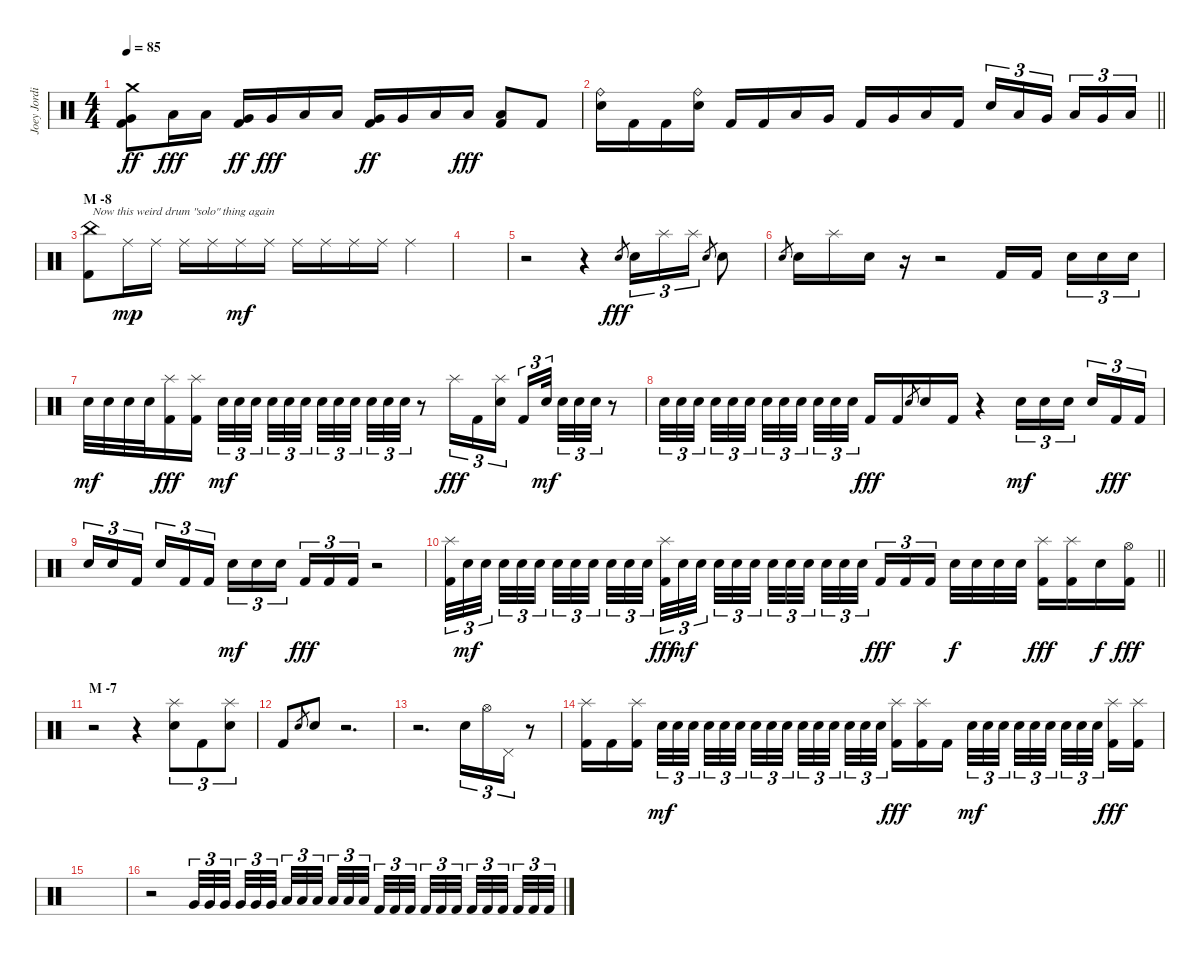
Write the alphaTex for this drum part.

\track ("Joey Jordison" "Joey Jordi") {instrument percussion}
\staff {score}
\articulation defaults
\ts (4 4)
\tempo 85
\clef neutral
\ks c
("Crash medium (hit)" "Very Low Tom (hit)" "Kick (hit) 2").8{dy ff} "Low Tom (hit)".16{dy fff} "Low Tom (hit)".16 ("Very Low Tom (hit)" "Kick (hit) 2").16{dy ff} "Very Low Tom (hit)".16{dy fff} "Low Tom (hit)".16 "Low Tom (hit)".16 ("Very Low Tom (hit)" "Kick (hit) 2").16{dy ff} "Very Low Tom (hit)".16 "Low Floor Tom (hit)".16 "Low Floor Tom (hit)".16{dy fff} ("Low Floor Tom (hit)" "Kick (hit) 2").8 "Kick (hit) 2".8 |
\barLineRight lightlight
("Ride (bell)" "Electric Snare (hit)").16 "Kick (hit) 2".16 "Kick (hit) 2".16 ("Ride (bell)" "Electric Snare (hit)").16 "Kick (hit) 2".16 "Kick (hit) 2".16 "Low Tom (hit)".16 "Very Low Tom (hit)".16 "Kick (hit) 2".16 "Very Low Tom (hit)".16 "Low Floor Tom (hit)".16 "Kick (hit) 2".16 "Electric Snare (hit)".16{tu (3 2)} "Low Tom (hit)".16{tu (3 2)} "Very Low Tom (hit)".16{tu (3 2) beam splitsecondary} "Low Tom (hit)".16{tu (3 2)} "Very Low Tom (hit)".16{tu (3 2)} "Low Floor Tom (hit)".16{tu (3 2)} |
\section ("" "M -8")
("China (hit)" "Kick (hit) 2").8{txt "Now this weird drum \"solo\" thing again"} "Ride (middle)".16{dy mp} "Ride (middle)".16 "Ride (middle)".16 "Ride (middle)".16 "Ride (middle)".16{dy mf} "Ride (middle)".16 "Ride (middle)".16 "Ride (middle)".16 "Ride (middle)".16 "Ride (middle)".16 "Ride (middle)".4 |
|
r.2 r.4 "Electric Snare (hit)".8{gr dy fff} "Electric Snare (hit)".16{tu (3 2)} "Splash (hit)".16{tu (3 2)} "Splash (hit)".16{tu (3 2)} "Electric Snare (hit)".8{gr} "Electric Snare (hit)".8 |
"Electric Snare (hit)".8{gr} "Electric Snare (hit)".16 "Splash (hit)".16 "Electric Snare (hit)".16 r.16 r.2 "Kick (hit) 2".16 "Kick (hit) 2".16{beam splitsecondary} "Electric Snare (hit)".16{tu (3 2)} "Electric Snare (hit)".16{tu (3 2)} "Electric Snare (hit)".16{tu (3 2)} |
"Electric Snare (hit)".32{dy mf} "Electric Snare (hit)".32 "Electric Snare (hit)".32 "Electric Snare (hit)".32 ("Splash (hit)" "Kick (hit) 2").16{dy fff} ("Splash (hit)" "Kick (hit) 2").16 "Electric Snare (hit)".32{tu (3 2) dy mf} "Electric Snare (hit)".32{tu (3 2)} "Electric Snare (hit)".32{tu (3 2) beam splitsecondary} "Electric Snare (hit)".32{tu (3 2)} "Electric Snare (hit)".32{tu (3 2)} "Electric Snare (hit)".32{tu (3 2) beam splitsecondary} "Electric Snare (hit)".32{tu (3 2)} "Electric Snare (hit)".32{tu (3 2)} "Electric Snare (hit)".32{tu (3 2) beam splitsecondary} "Electric Snare (hit)".32{tu (3 2)} "Electric Snare (hit)".32{tu (3 2)} "Electric Snare (hit)".32{tu (3 2)} r.8 "Splash (hit)".16{tu (3 2) dy fff} "Kick (hit) 2".16{tu (3 2)} ("Splash (hit)" "Electric Snare (hit)").16{tu (3 2)} "Kick (hit) 2".16{tu (3 2)} "Electric Snare (hit)".32{tu (3 2) dy mf beam splitsecondary} "Electric Snare (hit)".32{tu (3 2)} "Electric Snare (hit)".32{tu (3 2)} "Electric Snare (hit)".32{tu (3 2)} r.8 |
"Electric Snare (hit)".32{tu (3 2)} "Electric Snare (hit)".32{tu (3 2)} "Electric Snare (hit)".32{tu (3 2) beam splitsecondary} "Electric Snare (hit)".32{tu (3 2)} "Electric Snare (hit)".32{tu (3 2)} "Electric Snare (hit)".32{tu (3 2) beam splitsecondary} "Electric Snare (hit)".32{tu (3 2)} "Electric Snare (hit)".32{tu (3 2)} "Electric Snare (hit)".32{tu (3 2) beam splitsecondary} "Electric Snare (hit)".32{tu (3 2)} "Electric Snare (hit)".32{tu (3 2)} "Electric Snare (hit)".32{tu (3 2)} "Kick (hit) 2".16{dy fff} "Kick (hit) 2".16 "Electric Snare (hit)".8{gr} "Electric Snare (hit)".16 "Kick (hit) 2".16 r.4 "Electric Snare (hit)".16{tu (3 2) dy mf} "Electric Snare (hit)".16{tu (3 2)} "Electric Snare (hit)".16{tu (3 2) beam splitsecondary} "Electric Snare (hit)".16{tu (3 2)} "Kick (hit) 2".16{tu (3 2) dy fff} "Kick (hit) 2".16{tu (3 2)} |
"Electric Snare (hit)".16{tu (3 2)} "Electric Snare (hit)".16{tu (3 2)} "Kick (hit) 2".16{tu (3 2) beam splitsecondary} "Electric Snare (hit)".16{tu (3 2)} "Kick (hit) 2".16{tu (3 2)} "Kick (hit) 2".16{tu (3 2)} "Electric Snare (hit)".16{tu (3 2) dy mf} "Electric Snare (hit)".16{tu (3 2)} "Electric Snare (hit)".16{tu (3 2) beam splitsecondary} "Kick (hit) 2".16{tu (3 2) dy fff} "Kick (hit) 2".16{tu (3 2)} "Kick (hit) 2".16{tu (3 2)} r.2 |
\barLineRight lightlight
("Splash (hit)" "Kick (hit) 2").32{tu (3 2)} "Electric Snare (hit)".32{tu (3 2) dy mf} "Electric Snare (hit)".32{tu (3 2) beam splitsecondary} "Electric Snare (hit)".32{tu (3 2)} "Electric Snare (hit)".32{tu (3 2)} "Electric Snare (hit)".32{tu (3 2) beam splitsecondary} "Electric Snare (hit)".32{tu (3 2)} "Electric Snare (hit)".32{tu (3 2)} "Electric Snare (hit)".32{tu (3 2) beam splitsecondary} "Electric Snare (hit)".32{tu (3 2)} "Electric Snare (hit)".32{tu (3 2)} "Electric Snare (hit)".32{tu (3 2)} ("Splash (hit)" "Kick (hit) 2").32{tu (3 2) dy fff} "Electric Snare (hit)".32{tu (3 2) dy mf} "Electric Snare (hit)".32{tu (3 2) beam splitsecondary} "Electric Snare (hit)".32{tu (3 2)} "Electric Snare (hit)".32{tu (3 2)} "Electric Snare (hit)".32{tu (3 2) beam splitsecondary} "Electric Snare (hit)".32{tu (3 2)} "Electric Snare (hit)".32{tu (3 2)} "Electric Snare (hit)".32{tu (3 2) beam splitsecondary} "Electric Snare (hit)".32{tu (3 2)} "Electric Snare (hit)".32{tu (3 2)} "Electric Snare (hit)".32{tu (3 2)} "Kick (hit) 2".16{tu (3 2) dy fff} "Kick (hit) 2".16{tu (3 2)} "Kick (hit) 2".16{tu (3 2) beam splitsecondary} "Electric Snare (hit)".32{dy f} "Electric Snare (hit)".32 "Electric Snare (hit)".32 "Electric Snare (hit)".32 ("Splash (hit)" "Kick (hit) 2").16{dy fff} ("Splash (hit)" "Kick (hit) 2").16 "Electric Snare (hit)".16{dy f} ("Hi-Hat (open)" "Kick (hit) 2").16{dy fff} |
\section ("" "M -7")
r.2 r.4 ("Splash (hit)" "Electric Snare (hit)").8{tu (3 2)} "Kick (hit) 2".8{tu (3 2)} ("Splash (hit)" "Electric Snare (hit)").8{tu (3 2)} |
"Kick (hit) 2".8 "Electric Snare (hit)".8{gr} "Electric Snare (hit)".8 r.2{d} |
r.2{d} "Electric Snare (hit)".16{tu (3 2)} "Hi-Hat (open)".16{tu (3 2)} "Pedal Hi-Hat (hit)".16{tu (3 2)} r.8 |
("Splash (hit)" "Kick (hit) 2").16 "Kick (hit) 2".16 ("Splash (hit)" "Kick (hit) 2").16{beam splitsecondary} "Electric Snare (hit)".32{tu (3 2) dy mf} "Electric Snare (hit)".32{tu (3 2)} "Electric Snare (hit)".32{tu (3 2)} "Electric Snare (hit)".32{tu (3 2)} "Electric Snare (hit)".32{tu (3 2)} "Electric Snare (hit)".32{tu (3 2) beam splitsecondary} "Electric Snare (hit)".32{tu (3 2)} "Electric Snare (hit)".32{tu (3 2)} "Electric Snare (hit)".32{tu (3 2) beam splitsecondary} "Electric Snare (hit)".32{tu (3 2)} "Electric Snare (hit)".32{tu (3 2)} "Electric Snare (hit)".32{tu (3 2) beam splitsecondary} "Electric Snare (hit)".32{tu (3 2)} "Electric Snare (hit)".32{tu (3 2)} "Electric Snare (hit)".32{tu (3 2)} ("Splash (hit)" "Kick (hit) 2").16{dy fff} ("Splash (hit)" "Kick (hit) 2").16 "Kick (hit) 2".16{beam splitsecondary} "Electric Snare (hit)".32{tu (3 2) dy mf} "Electric Snare (hit)".32{tu (3 2)} "Electric Snare (hit)".32{tu (3 2)} "Electric Snare (hit)".32{tu (3 2)} "Electric Snare (hit)".32{tu (3 2)} "Electric Snare (hit)".32{tu (3 2) beam splitsecondary} "Electric Snare (hit)".32{tu (3 2)} "Electric Snare (hit)".32{tu (3 2)} "Electric Snare (hit)".32{tu (3 2) beam splitsecondary} ("Splash (hit)" "Kick (hit) 2").16{dy fff} ("Splash (hit)" "Kick (hit) 2").16 |
|
r.2 "Very Low Tom (hit)".32{tu (3 2)} "Very Low Tom (hit)".32{tu (3 2)} "Very Low Tom (hit)".32{tu (3 2) beam splitsecondary} "Very Low Tom (hit)".32{tu (3 2)} "Very Low Tom (hit)".32{tu (3 2)} "Very Low Tom (hit)".32{tu (3 2) beam splitsecondary} "Low Floor Tom (hit)".32{tu (3 2)} "Low Floor Tom (hit)".32{tu (3 2)} "Low Floor Tom (hit)".32{tu (3 2) beam splitsecondary} "Low Floor Tom (hit)".32{tu (3 2)} "Low Floor Tom (hit)".32{tu (3 2)} "Low Floor Tom (hit)".32{tu (3 2)} "Kick (hit) 2".32{tu (3 2)} "Kick (hit) 2".32{tu (3 2)} "Kick (hit) 2".32{tu (3 2) beam splitsecondary} "Kick (hit) 2".32{tu (3 2)} "Kick (hit) 2".32{tu (3 2)} "Kick (hit) 2".32{tu (3 2) beam splitsecondary} "Kick (hit) 2".32{tu (3 2)} "Kick (hit) 2".32{tu (3 2)} "Kick (hit) 2".32{tu (3 2) beam splitsecondary} "Kick (hit) 2".32{tu (3 2)} "Kick (hit) 2".32{tu (3 2)} "Kick (hit) 2".32{tu (3 2)}
